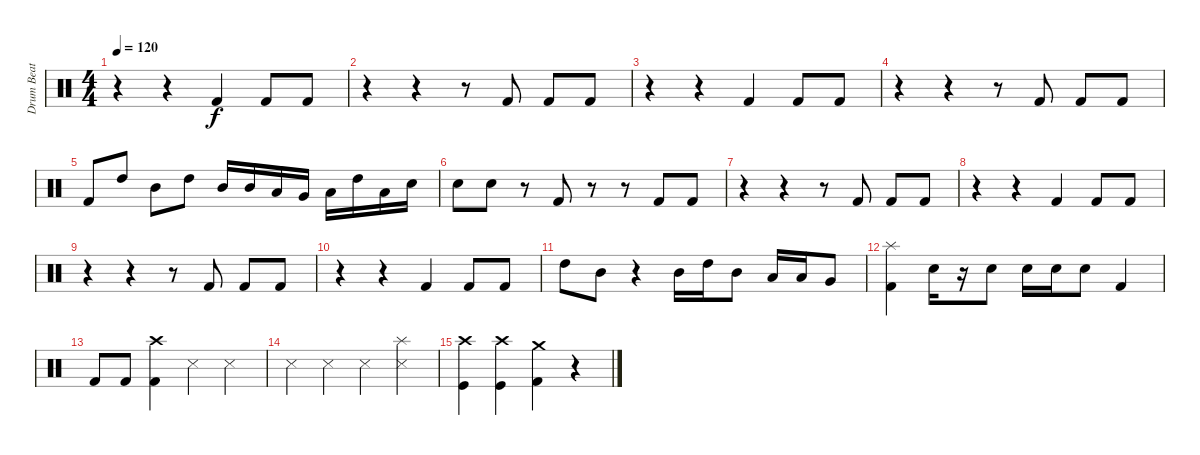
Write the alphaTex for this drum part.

\track ("Drum Beat" "Drum Beat") {instrument percussion}
\staff {score}
\articulation defaults
\ts (4 4)
\tempo 120
\clef neutral
\ks c
r.4{dy f} r.4 "Kick (hit) 2".4 "Kick (hit) 2".8 "Kick (hit) 2".8 |
r.4 r.4 r.8 "Kick (hit) 2".8 "Kick (hit) 2".8 "Kick (hit) 2".8 |
r.4 r.4 "Kick (hit) 2".4 "Kick (hit) 2".8 "Kick (hit) 2".8 |
r.4 r.4 r.8 "Kick (hit) 2".8 "Kick (hit) 2".8 "Kick (hit) 2".8 |
"Kick (hit) 2".8 "High Tom (hit)".8 "Mid Tom (hit)".8 "High Tom (hit)".8 "Mid Tom (hit)".16 "Mid Tom (hit)".16 "Low Tom (hit)".16 "Very Low Tom (hit)".16 "Low Floor Tom (hit)".16 "High Tom (hit)".16 "Low Tom (hit)".16 "Electric Snare (hit)".16 |
"Electric Snare (hit)".8 "Electric Snare (hit)".8 r.8 "Kick (hit) 2".8 r.8 r.8 "Kick (hit) 2".8 "Kick (hit) 2".8 |
r.4 r.4 r.8 "Kick (hit) 2".8 "Kick (hit) 2".8 "Kick (hit) 2".8 |
r.4 r.4 "Kick (hit) 2".4 "Kick (hit) 2".8 "Kick (hit) 2".8 |
r.4 r.4 r.8 "Kick (hit) 2".8 "Kick (hit) 2".8 "Kick (hit) 2".8 |
r.4 r.4 "Kick (hit) 2".4 "Kick (hit) 2".8 "Kick (hit) 2".8 |
"High Tom (hit)".8 "Mid Tom (hit)".8 r.4 "Mid Tom (hit)".16 "High Tom (hit)".16 "Mid Tom (hit)".8 "Low Tom (hit)".16 "Low Tom (hit)".16 "Very Low Tom (hit)".8 |
("Kick (hit) 2" "Splash (hit)").4 "Electric Snare (hit)".16 r.16 "Electric Snare (hit)".8 "Electric Snare (hit)".16 "Electric Snare (hit)".16 "Electric Snare (hit)".8 "Kick (hit) 2".4 |
"Kick (hit) 2".8 "Kick (hit) 2".8 ("Kick (hit) 2" "Crash high (hit)").4 "Snare (side stick) 3".4 "Snare (side stick) 3".4 |
"Snare (side stick) 3".4 "Snare (side stick) 3".4 "Snare (side stick) 3".4 ("Snare (side stick) 3" "Splash (hit)").4 |
("Kick (hit)" "Crash high (hit)").4 ("Crash high (hit)" "Kick (hit)").4 ("Kick (hit) 2" "Crash medium (hit)").4 r.4
